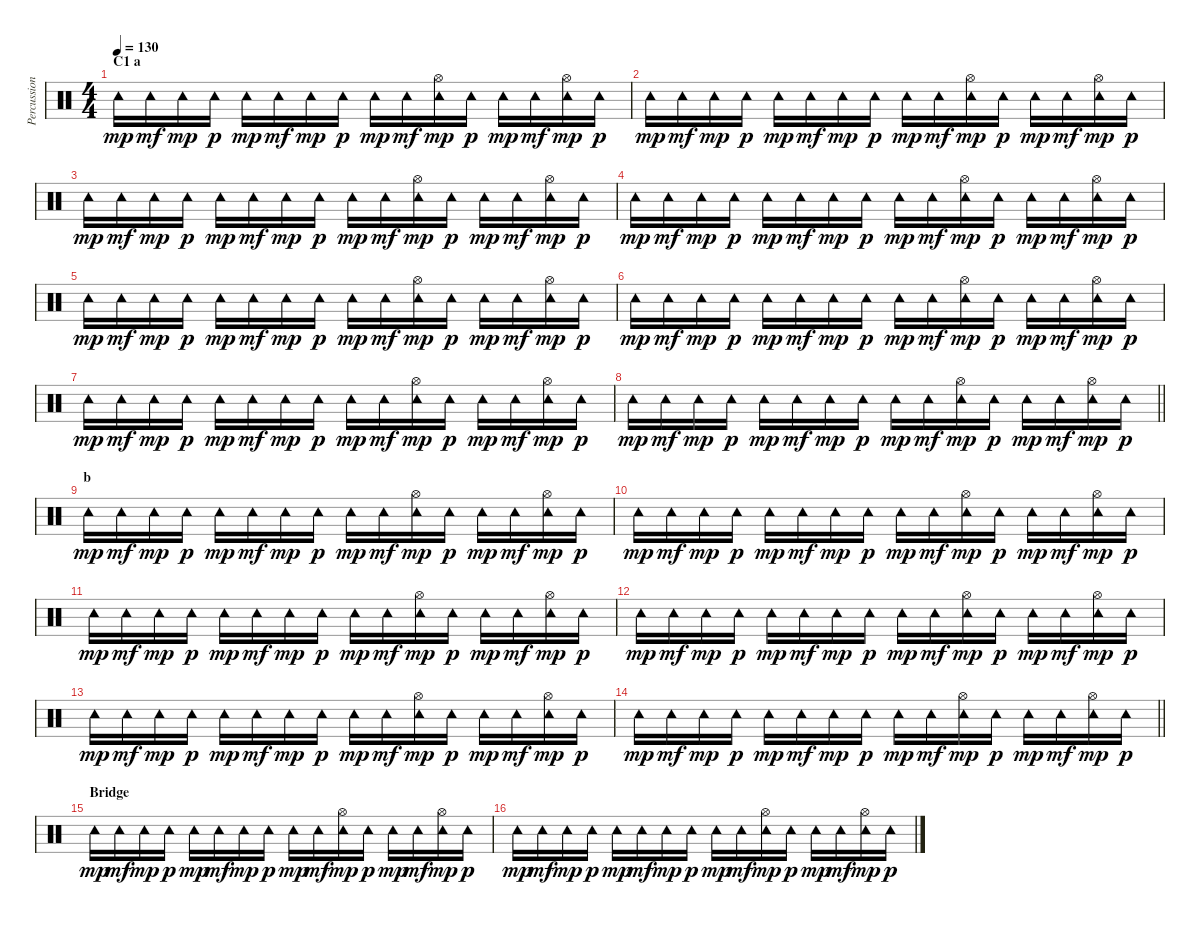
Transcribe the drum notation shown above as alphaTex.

\track ("Percussion (Programmed)" "Percussion") {instrument percussion}
\staff {score}
\articulation defaults
\ts (4 4)
\section ("" "C1 a")
\tempo 130
\clef neutral
\ks c "Tambourine (hit)".16{dy mp} "Tambourine (hit)".16{dy mf} "Tambourine (hit)".16{dy mp} "Tambourine (hit)".16{dy p} "Tambourine (hit)".16{dy mp} "Tambourine (hit)".16{dy mf} "Tambourine (hit)".16{dy mp} "Tambourine (hit)".16{dy p} "Tambourine (hit)".16{dy mp} "Tambourine (hit)".16{dy mf}
("Tambourine (hit)" "Hi-Hat (open)").16{dy mp} "Tambourine (hit)".16{dy p} "Tambourine (hit)".16{dy mp} "Tambourine (hit)".16{dy mf} ("Tambourine (hit)" "Hi-Hat (open)").16{dy mp} "Tambourine (hit)".16{dy p} |
"Tambourine (hit)".16{dy mp} "Tambourine (hit)".16{dy mf} "Tambourine (hit)".16{dy mp} "Tambourine (hit)".16{dy p} "Tambourine (hit)".16{dy mp} "Tambourine (hit)".16{dy mf} "Tambourine (hit)".16{dy mp} "Tambourine (hit)".16{dy p} "Tambourine (hit)".16{dy mp} "Tambourine (hit)".16{dy mf} ("Tambourine (hit)" "Hi-Hat (open)").16{dy mp} "Tambourine (hit)".16{dy p} "Tambourine (hit)".16{dy mp} "Tambourine (hit)".16{dy mf} ("Tambourine (hit)" "Hi-Hat (open)").16{dy mp} "Tambourine (hit)".16{dy p} |
"Tambourine (hit)".16{dy mp} "Tambourine (hit)".16{dy mf} "Tambourine (hit)".16{dy mp} "Tambourine (hit)".16{dy p} "Tambourine (hit)".16{dy mp} "Tambourine (hit)".16{dy mf} "Tambourine (hit)".16{dy mp} "Tambourine (hit)".16{dy p} "Tambourine (hit)".16{dy mp} "Tambourine (hit)".16{dy mf} ("Tambourine (hit)" "Hi-Hat (open)").16{dy mp} "Tambourine (hit)".16{dy p} "Tambourine (hit)".16{dy mp} "Tambourine (hit)".16{dy mf} ("Tambourine (hit)" "Hi-Hat (open)").16{dy mp} "Tambourine (hit)".16{dy p} |
"Tambourine (hit)".16{dy mp} "Tambourine (hit)".16{dy mf} "Tambourine (hit)".16{dy mp} "Tambourine (hit)".16{dy p} "Tambourine (hit)".16{dy mp} "Tambourine (hit)".16{dy mf} "Tambourine (hit)".16{dy mp} "Tambourine (hit)".16{dy p} "Tambourine (hit)".16{dy mp} "Tambourine (hit)".16{dy mf} ("Tambourine (hit)" "Hi-Hat (open)").16{dy mp} "Tambourine (hit)".16{dy p} "Tambourine (hit)".16{dy mp} "Tambourine (hit)".16{dy mf} ("Tambourine (hit)" "Hi-Hat (open)").16{dy mp} "Tambourine (hit)".16{dy p} |
"Tambourine (hit)".16{dy mp} "Tambourine (hit)".16{dy mf} "Tambourine (hit)".16{dy mp} "Tambourine (hit)".16{dy p} "Tambourine (hit)".16{dy mp} "Tambourine (hit)".16{dy mf} "Tambourine (hit)".16{dy mp} "Tambourine (hit)".16{dy p} "Tambourine (hit)".16{dy mp} "Tambourine (hit)".16{dy mf} ("Tambourine (hit)" "Hi-Hat (open)").16{dy mp} "Tambourine (hit)".16{dy p} "Tambourine (hit)".16{dy mp} "Tambourine (hit)".16{dy mf} ("Tambourine (hit)" "Hi-Hat (open)").16{dy mp} "Tambourine (hit)".16{dy p} |
"Tambourine (hit)".16{dy mp} "Tambourine (hit)".16{dy mf} "Tambourine (hit)".16{dy mp} "Tambourine (hit)".16{dy p} "Tambourine (hit)".16{dy mp} "Tambourine (hit)".16{dy mf} "Tambourine (hit)".16{dy mp} "Tambourine (hit)".16{dy p} "Tambourine (hit)".16{dy mp} "Tambourine (hit)".16{dy mf} ("Tambourine (hit)" "Hi-Hat (open)").16{dy mp} "Tambourine (hit)".16{dy p} "Tambourine (hit)".16{dy mp} "Tambourine (hit)".16{dy mf} ("Tambourine (hit)" "Hi-Hat (open)").16{dy mp} "Tambourine (hit)".16{dy p} |
"Tambourine (hit)".16{dy mp} "Tambourine (hit)".16{dy mf} "Tambourine (hit)".16{dy mp} "Tambourine (hit)".16{dy p} "Tambourine (hit)".16{dy mp} "Tambourine (hit)".16{dy mf} "Tambourine (hit)".16{dy mp} "Tambourine (hit)".16{dy p} "Tambourine (hit)".16{dy mp} "Tambourine (hit)".16{dy mf} ("Tambourine (hit)" "Hi-Hat (open)").16{dy mp} "Tambourine (hit)".16{dy p} "Tambourine (hit)".16{dy mp} "Tambourine (hit)".16{dy mf} ("Tambourine (hit)" "Hi-Hat (open)").16{dy mp} "Tambourine (hit)".16{dy p} |
\barLineRight lightlight "Tambourine (hit)".16{dy mp} "Tambourine (hit)".16{dy mf} "Tambourine (hit)".16{dy mp} "Tambourine (hit)".16{dy p} "Tambourine (hit)".16{dy mp} "Tambourine (hit)".16{dy mf} "Tambourine (hit)".16{dy mp} "Tambourine (hit)".16{dy p} "Tambourine (hit)".16{dy mp} "Tambourine (hit)".16{dy mf}
("Tambourine (hit)" "Hi-Hat (open)").16{dy mp} "Tambourine (hit)".16{dy p} "Tambourine (hit)".16{dy mp} "Tambourine (hit)".16{dy mf} ("Tambourine (hit)" "Hi-Hat (open)").16{dy mp} "Tambourine (hit)".16{dy p} |
\section ("" "b")
"Tambourine (hit)".16{dy mp} "Tambourine (hit)".16{dy mf} "Tambourine (hit)".16{dy mp} "Tambourine (hit)".16{dy p} "Tambourine (hit)".16{dy mp} "Tambourine (hit)".16{dy mf} "Tambourine (hit)".16{dy mp} "Tambourine (hit)".16{dy p} "Tambourine (hit)".16{dy mp} "Tambourine (hit)".16{dy mf} ("Tambourine (hit)" "Hi-Hat (open)").16{dy mp} "Tambourine (hit)".16{dy p} "Tambourine (hit)".16{dy mp} "Tambourine (hit)".16{dy mf} ("Tambourine (hit)" "Hi-Hat (open)").16{dy mp} "Tambourine (hit)".16{dy p} |
"Tambourine (hit)".16{dy mp} "Tambourine (hit)".16{dy mf} "Tambourine (hit)".16{dy mp} "Tambourine (hit)".16{dy p} "Tambourine (hit)".16{dy mp} "Tambourine (hit)".16{dy mf} "Tambourine (hit)".16{dy mp} "Tambourine (hit)".16{dy p} "Tambourine (hit)".16{dy mp} "Tambourine (hit)".16{dy mf} ("Tambourine (hit)" "Hi-Hat (open)").16{dy mp} "Tambourine (hit)".16{dy p} "Tambourine (hit)".16{dy mp} "Tambourine (hit)".16{dy mf} ("Tambourine (hit)" "Hi-Hat (open)").16{dy mp} "Tambourine (hit)".16{dy p} |
"Tambourine (hit)".16{dy mp} "Tambourine (hit)".16{dy mf} "Tambourine (hit)".16{dy mp} "Tambourine (hit)".16{dy p} "Tambourine (hit)".16{dy mp} "Tambourine (hit)".16{dy mf} "Tambourine (hit)".16{dy mp} "Tambourine (hit)".16{dy p} "Tambourine (hit)".16{dy mp} "Tambourine (hit)".16{dy mf} ("Tambourine (hit)" "Hi-Hat (open)").16{dy mp} "Tambourine (hit)".16{dy p} "Tambourine (hit)".16{dy mp} "Tambourine (hit)".16{dy mf} ("Tambourine (hit)" "Hi-Hat (open)").16{dy mp} "Tambourine (hit)".16{dy p} |
"Tambourine (hit)".16{dy mp} "Tambourine (hit)".16{dy mf} "Tambourine (hit)".16{dy mp} "Tambourine (hit)".16{dy p} "Tambourine (hit)".16{dy mp} "Tambourine (hit)".16{dy mf} "Tambourine (hit)".16{dy mp} "Tambourine (hit)".16{dy p} "Tambourine (hit)".16{dy mp} "Tambourine (hit)".16{dy mf} ("Tambourine (hit)" "Hi-Hat (open)").16{dy mp} "Tambourine (hit)".16{dy p} "Tambourine (hit)".16{dy mp} "Tambourine (hit)".16{dy mf} ("Tambourine (hit)" "Hi-Hat (open)").16{dy mp} "Tambourine (hit)".16{dy p} |
"Tambourine (hit)".16{dy mp} "Tambourine (hit)".16{dy mf} "Tambourine (hit)".16{dy mp} "Tambourine (hit)".16{dy p} "Tambourine (hit)".16{dy mp} "Tambourine (hit)".16{dy mf} "Tambourine (hit)".16{dy mp} "Tambourine (hit)".16{dy p} "Tambourine (hit)".16{dy mp} "Tambourine (hit)".16{dy mf} ("Tambourine (hit)" "Hi-Hat (open)").16{dy mp} "Tambourine (hit)".16{dy p} "Tambourine (hit)".16{dy mp} "Tambourine (hit)".16{dy mf} ("Tambourine (hit)" "Hi-Hat (open)").16{dy mp} "Tambourine (hit)".16{dy p} |
\barLineRight lightlight "Tambourine (hit)".16{dy mp} "Tambourine (hit)".16{dy mf} "Tambourine (hit)".16{dy mp} "Tambourine (hit)".16{dy p} "Tambourine (hit)".16{dy mp} "Tambourine (hit)".16{dy mf} "Tambourine (hit)".16{dy mp} "Tambourine (hit)".16{dy p} "Tambourine (hit)".16{dy mp} "Tambourine (hit)".16{dy mf}
("Tambourine (hit)" "Hi-Hat (open)").16{dy mp} "Tambourine (hit)".16{dy p} "Tambourine (hit)".16{dy mp} "Tambourine (hit)".16{dy mf} ("Tambourine (hit)" "Hi-Hat (open)").16{dy mp} "Tambourine (hit)".16{dy p} |
\section ("" "Bridge")
"Tambourine (hit)".16{dy mp} "Tambourine (hit)".16{dy mf} "Tambourine (hit)".16{dy mp} "Tambourine (hit)".16{dy p} "Tambourine (hit)".16{dy mp} "Tambourine (hit)".16{dy mf} "Tambourine (hit)".16{dy mp} "Tambourine (hit)".16{dy p} "Tambourine (hit)".16{dy mp} "Tambourine (hit)".16{dy mf} ("Tambourine (hit)" "Hi-Hat (open)").16{dy mp} "Tambourine (hit)".16{dy p} "Tambourine (hit)".16{dy mp} "Tambourine (hit)".16{dy mf} ("Tambourine (hit)" "Hi-Hat (open)").16{dy mp} "Tambourine (hit)".16{dy p} |
"Tambourine (hit)".16{dy mp} "Tambourine (hit)".16{dy mf} "Tambourine (hit)".16{dy mp} "Tambourine (hit)".16{dy p} "Tambourine (hit)".16{dy mp} "Tambourine (hit)".16{dy mf} "Tambourine (hit)".16{dy mp} "Tambourine (hit)".16{dy p} "Tambourine (hit)".16{dy mp} "Tambourine (hit)".16{dy mf} ("Tambourine (hit)" "Hi-Hat (open)").16{dy mp} "Tambourine (hit)".16{dy p} "Tambourine (hit)".16{dy mp} "Tambourine (hit)".16{dy mf} ("Tambourine (hit)" "Hi-Hat (open)").16{dy mp} "Tambourine (hit)".16{dy p}
